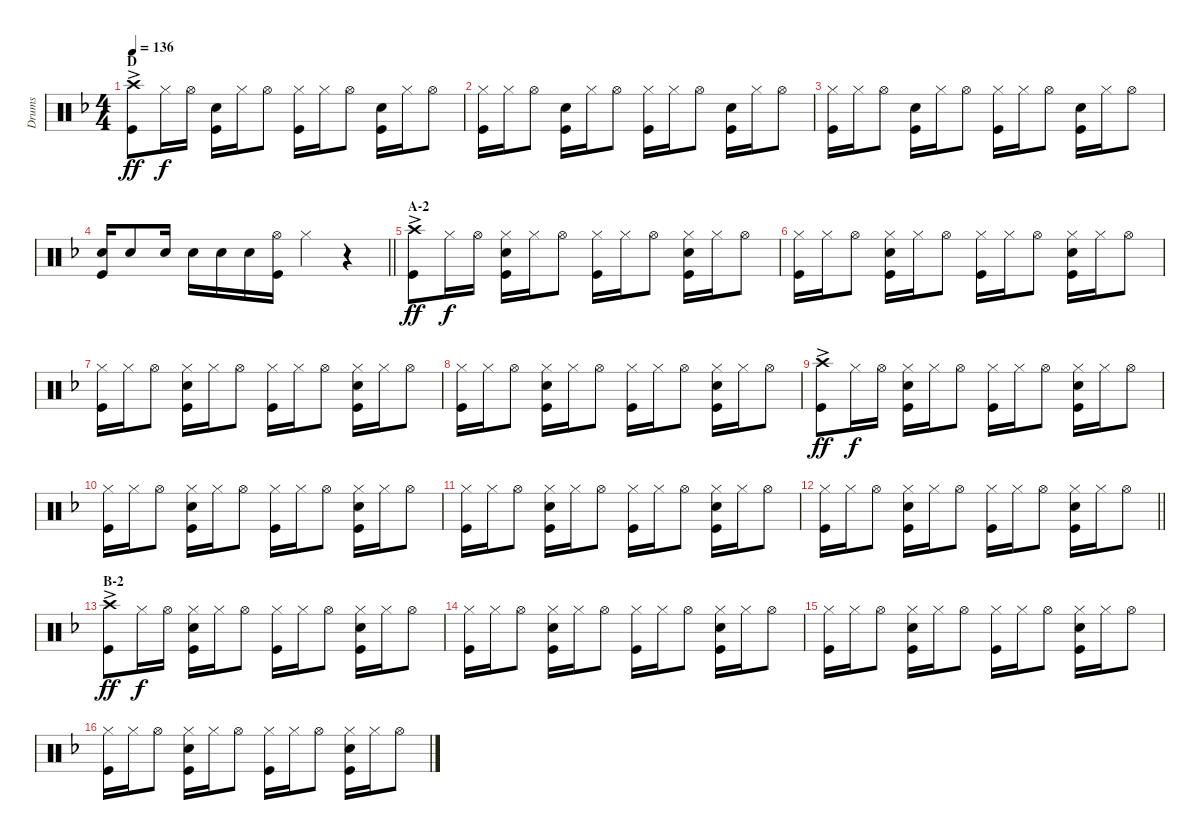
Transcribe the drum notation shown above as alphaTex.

\track ("Drums" "Drums") {instrument percussion}
\staff {score}
\articulation defaults
\ts (4 4)
\section ("" "D")
\tempo 136
\clef neutral
\ks dminor
("Kick (hit)" "Crash high (hit)"{ac}).8{dy ff} "Hi-Hat (closed)".16{dy f} "Hi-Hat (open)".16 ("Kick (hit)" "Snare (hit) 2").16 "Hi-Hat (closed)".16 "Hi-Hat (open)".8 ("Kick (hit)" "Hi-Hat (closed)").16 "Hi-Hat (closed)".16 "Hi-Hat (open)".8 ("Kick (hit)" "Snare (hit) 2").16 "Hi-Hat (closed)".16 "Hi-Hat (open)".8 |
("Kick (hit)" "Hi-Hat (closed)").16 "Hi-Hat (closed)".16 "Hi-Hat (open)".8 ("Kick (hit)" "Snare (hit) 2").16 "Hi-Hat (closed)".16 "Hi-Hat (open)".8 ("Kick (hit)" "Hi-Hat (closed)").16 "Hi-Hat (closed)".16 "Hi-Hat (open)".8 ("Kick (hit)" "Snare (hit) 2").16 "Hi-Hat (closed)".16 "Hi-Hat (open)".8 |
("Kick (hit)" "Hi-Hat (closed)").16 "Hi-Hat (closed)".16 "Hi-Hat (open)".8 ("Kick (hit)" "Snare (hit) 2").16 "Hi-Hat (closed)".16 "Hi-Hat (open)".8 ("Kick (hit)" "Hi-Hat (closed)").16 "Hi-Hat (closed)".16 "Hi-Hat (open)".8 ("Kick (hit)" "Snare (hit) 2").16 "Hi-Hat (closed)".16 "Hi-Hat (open)".8 |
\barLineRight lightlight
("Snare (hit) 2" "Kick (hit)").16 "Snare (hit) 2".8 "Snare (hit) 2".16 "Snare (hit) 2".16 "Snare (hit) 2".16 "Snare (hit) 2".16 ("Kick (hit)" "Hi-Hat (open)").16 "Hi-Hat (closed)".4 r.4 |
\section ("" "A-2")
("Kick (hit)" "Crash high (hit)"{ac}).8{dy ff} "Hi-Hat (closed)".16{dy f} "Hi-Hat (open)".16 ("Kick (hit)" "Hi-Hat (closed)" "Snare (hit) 2").16 "Hi-Hat (closed)".16 "Hi-Hat (open)".8 ("Kick (hit)" "Hi-Hat (closed)").16 "Hi-Hat (closed)".16 "Hi-Hat (open)".8 ("Kick (hit)" "Hi-Hat (closed)" "Snare (hit) 2").16 "Hi-Hat (closed)".16 "Hi-Hat (open)".8 |
("Kick (hit)" "Hi-Hat (closed)").16 "Hi-Hat (closed)".16 "Hi-Hat (open)".8 ("Kick (hit)" "Hi-Hat (closed)" "Snare (hit) 2").16 "Hi-Hat (closed)".16 "Hi-Hat (open)".8 ("Kick (hit)" "Hi-Hat (closed)").16 "Hi-Hat (closed)".16 "Hi-Hat (open)".8 ("Kick (hit)" "Hi-Hat (closed)" "Snare (hit) 2").16 "Hi-Hat (closed)".16 "Hi-Hat (open)".8 |
("Kick (hit)" "Hi-Hat (closed)").16 "Hi-Hat (closed)".16 "Hi-Hat (open)".8 ("Kick (hit)" "Hi-Hat (closed)" "Snare (hit) 2").16 "Hi-Hat (closed)".16 "Hi-Hat (open)".8 ("Kick (hit)" "Hi-Hat (closed)").16 "Hi-Hat (closed)".16 "Hi-Hat (open)".8 ("Kick (hit)" "Hi-Hat (closed)" "Snare (hit) 2").16 "Hi-Hat (closed)".16 "Hi-Hat (open)".8 |
("Kick (hit)" "Hi-Hat (closed)").16 "Hi-Hat (closed)".16 "Hi-Hat (open)".8 ("Kick (hit)" "Hi-Hat (closed)" "Snare (hit) 2").16 "Hi-Hat (closed)".16 "Hi-Hat (open)".8 ("Kick (hit)" "Hi-Hat (closed)").16 "Hi-Hat (closed)".16 "Hi-Hat (open)".8 ("Kick (hit)" "Hi-Hat (closed)" "Snare (hit) 2").16 "Hi-Hat (closed)".16 "Hi-Hat (open)".8 |
("Kick (hit)" "Crash high (hit)"{ac}).8{dy ff} "Hi-Hat (closed)".16{dy f} "Hi-Hat (open)".16 ("Kick (hit)" "Hi-Hat (closed)" "Snare (hit) 2").16 "Hi-Hat (closed)".16 "Hi-Hat (open)".8 ("Kick (hit)" "Hi-Hat (closed)").16 "Hi-Hat (closed)".16 "Hi-Hat (open)".8 ("Kick (hit)" "Hi-Hat (closed)" "Snare (hit) 2").16 "Hi-Hat (closed)".16 "Hi-Hat (open)".8 |
("Kick (hit)" "Hi-Hat (closed)").16 "Hi-Hat (closed)".16 "Hi-Hat (open)".8 ("Kick (hit)" "Hi-Hat (closed)" "Snare (hit) 2").16 "Hi-Hat (closed)".16 "Hi-Hat (open)".8 ("Kick (hit)" "Hi-Hat (closed)").16 "Hi-Hat (closed)".16 "Hi-Hat (open)".8 ("Kick (hit)" "Hi-Hat (closed)" "Snare (hit) 2").16 "Hi-Hat (closed)".16 "Hi-Hat (open)".8 |
("Kick (hit)" "Hi-Hat (closed)").16 "Hi-Hat (closed)".16 "Hi-Hat (open)".8 ("Kick (hit)" "Hi-Hat (closed)" "Snare (hit) 2").16 "Hi-Hat (closed)".16 "Hi-Hat (open)".8 ("Kick (hit)" "Hi-Hat (closed)").16 "Hi-Hat (closed)".16 "Hi-Hat (open)".8 ("Kick (hit)" "Hi-Hat (closed)" "Snare (hit) 2").16 "Hi-Hat (closed)".16 "Hi-Hat (open)".8 |
\barLineRight lightlight
("Kick (hit)" "Hi-Hat (closed)").16 "Hi-Hat (closed)".16 "Hi-Hat (open)".8 ("Kick (hit)" "Hi-Hat (closed)" "Snare (hit) 2").16 "Hi-Hat (closed)".16 "Hi-Hat (open)".8 ("Kick (hit)" "Hi-Hat (closed)").16 "Hi-Hat (closed)".16 "Hi-Hat (open)".8 ("Kick (hit)" "Hi-Hat (closed)" "Snare (hit) 2").16 "Hi-Hat (closed)".16 "Hi-Hat (open)".8 |
\section ("" "B-2")
("Kick (hit)" "Crash high (hit)"{ac}).8{dy ff} "Hi-Hat (closed)".16{dy f} "Hi-Hat (open)".16 ("Kick (hit)" "Hi-Hat (closed)" "Snare (hit) 2").16 "Hi-Hat (closed)".16 "Hi-Hat (open)".8 ("Kick (hit)" "Hi-Hat (closed)").16 "Hi-Hat (closed)".16 "Hi-Hat (open)".8 ("Kick (hit)" "Hi-Hat (closed)" "Snare (hit) 2").16 "Hi-Hat (closed)".16 "Hi-Hat (open)".8 |
("Kick (hit)" "Hi-Hat (closed)").16 "Hi-Hat (closed)".16 "Hi-Hat (open)".8 ("Kick (hit)" "Hi-Hat (closed)" "Snare (hit) 2").16 "Hi-Hat (closed)".16 "Hi-Hat (open)".8 ("Kick (hit)" "Hi-Hat (closed)").16 "Hi-Hat (closed)".16 "Hi-Hat (open)".8 ("Kick (hit)" "Hi-Hat (closed)" "Snare (hit) 2").16 "Hi-Hat (closed)".16 "Hi-Hat (open)".8 |
("Kick (hit)" "Hi-Hat (closed)").16 "Hi-Hat (closed)".16 "Hi-Hat (open)".8 ("Kick (hit)" "Hi-Hat (closed)" "Snare (hit) 2").16 "Hi-Hat (closed)".16 "Hi-Hat (open)".8 ("Kick (hit)" "Hi-Hat (closed)").16 "Hi-Hat (closed)".16 "Hi-Hat (open)".8 ("Kick (hit)" "Hi-Hat (closed)" "Snare (hit) 2").16 "Hi-Hat (closed)".16 "Hi-Hat (open)".8 |
("Kick (hit)" "Hi-Hat (closed)").16 "Hi-Hat (closed)".16 "Hi-Hat (open)".8 ("Kick (hit)" "Hi-Hat (closed)" "Snare (hit) 2").16 "Hi-Hat (closed)".16 "Hi-Hat (open)".8 ("Kick (hit)" "Hi-Hat (closed)").16 "Hi-Hat (closed)".16 "Hi-Hat (open)".8 ("Kick (hit)" "Hi-Hat (closed)" "Snare (hit) 2").16 "Hi-Hat (closed)".16 "Hi-Hat (open)".8
